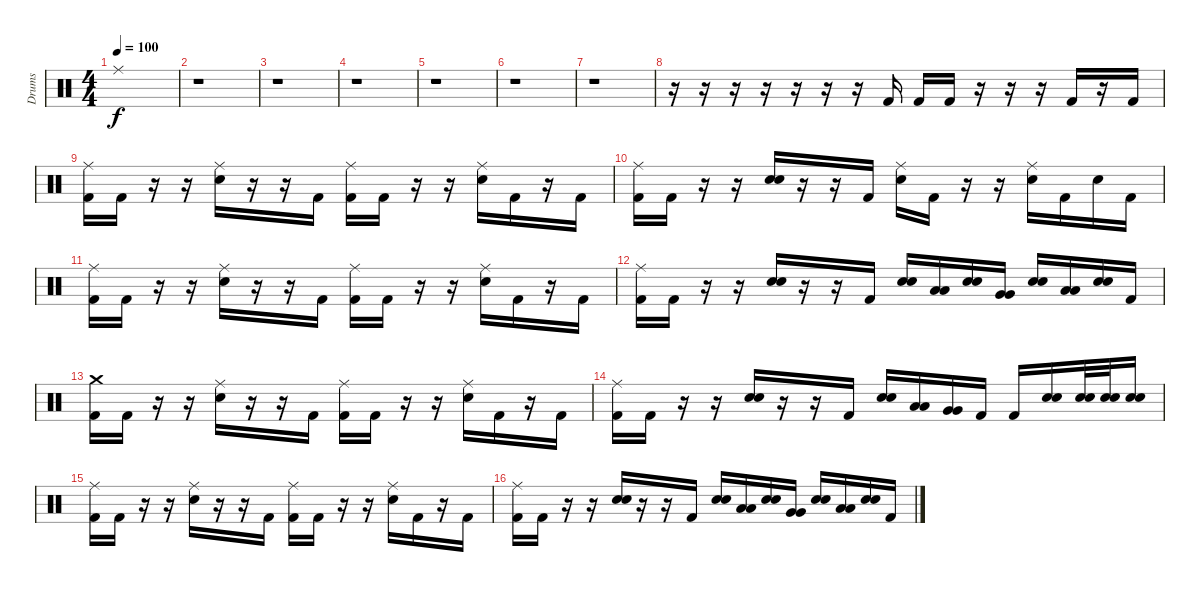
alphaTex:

\track ("Drums" "Drums") {instrument percussion}
\staff {score}
\articulation defaults
\ts (4 4)
\tempo 100
\clef neutral
\ks c "Ride (middle)".1{dy f}
|
r.1 |
r.1 |
r.1 |
r.1 |
r.1 |
r.1 |
r.16 r.16 r.16 r.16 r.16 r.16 r.16 "Kick (hit) 2".16 "Kick (hit) 2".16 "Kick (hit) 2".16 r.16 r.16 r.16 "Kick (hit) 2".16 r.16 "Kick (hit) 2".16 |
("Ride (middle)" "Kick (hit) 2").16 "Kick (hit) 2".16 r.16 r.16 ("Ride (middle)" "Electric Snare (hit)").16 r.16 r.16 "Kick (hit) 2".16 ("Ride (middle)" "Kick (hit) 2").16 "Kick (hit) 2".16 r.16 r.16 ("Ride (middle)" "Electric Snare (hit)").16 "Kick (hit) 2".16 r.16 "Kick (hit) 2".16 |
("Ride (middle)" "Kick (hit) 2").16 "Kick (hit) 2".16 r.16 r.16 ("Electric Snare (hit)" "Electric Snare (hit)").16 r.16 r.16 "Kick (hit) 2".16 ("Ride (middle)" "Electric Snare (hit)").16 "Kick (hit) 2".16 r.16 r.16 ("Ride (middle)" "Electric Snare (hit)").16 "Kick (hit) 2".16 "Electric Snare (hit)".16 "Kick (hit) 2".16 |
("Ride (middle)" "Kick (hit) 2").16 "Kick (hit) 2".16 r.16 r.16 ("Ride (middle)" "Electric Snare (hit)").16 r.16 r.16 "Kick (hit) 2".16 ("Ride (middle)" "Kick (hit) 2").16 "Kick (hit) 2".16 r.16 r.16 ("Ride (middle)" "Electric Snare (hit)").16 "Kick (hit) 2".16 r.16 "Kick (hit) 2".16 |
("Ride (middle)" "Kick (hit) 2").16 "Kick (hit) 2".16 r.16 r.16 ("Electric Snare (hit)" "Electric Snare (hit)").16 r.16 r.16 "Kick (hit) 2".16 ("Electric Snare (hit)" "Electric Snare (hit)").16 ("Low Floor Tom (hit)" "Low Floor Tom (hit)").16 ("Electric Snare (hit)" "Electric Snare (hit)").16 ("Very Low Tom (hit)" "Very Low Tom (hit)").16 ("Electric Snare (hit)" "Electric Snare (hit)").16 ("Low Tom (hit)" "Low Tom (hit)").16 ("Electric Snare (hit)" "Electric Snare (hit)").16 "Kick (hit) 2".16 |
("Crash medium (hit)" "Kick (hit) 2").16 "Kick (hit) 2".16 r.16 r.16 ("Ride (middle)" "Electric Snare (hit)").16 r.16 r.16 "Kick (hit) 2".16 ("Ride (middle)" "Kick (hit) 2").16 "Kick (hit) 2".16 r.16 r.16 ("Ride (middle)" "Electric Snare (hit)").16 "Kick (hit) 2".16 r.16 "Kick (hit) 2".16 |
("Ride (middle)" "Kick (hit) 2").16 "Kick (hit) 2".16 r.16 r.16 ("Electric Snare (hit)" "Electric Snare (hit)").16 r.16 r.16 "Kick (hit) 2".16 ("Electric Snare (hit)" "Electric Snare (hit)").16 ("Low Tom (hit)" "Low Tom (hit)").16 ("Very Low Tom (hit)" "Very Low Tom (hit)").16 "Kick (hit) 2".16 "Kick (hit) 2".16 ("Electric Snare (hit)" "Electric Snare (hit)").16 ("Electric Snare (hit)" "Electric Snare (hit)").32 ("Electric Snare (hit)" "Electric Snare (hit)").32 ("Electric Snare (hit)" "Electric Snare (hit)").16 |
("Ride (middle)" "Kick (hit) 2").16 "Kick (hit) 2".16 r.16 r.16 ("Ride (middle)" "Electric Snare (hit)").16 r.16 r.16 "Kick (hit) 2".16 ("Ride (middle)" "Kick (hit) 2").16 "Kick (hit) 2".16 r.16 r.16 ("Ride (middle)" "Electric Snare (hit)").16 "Kick (hit) 2".16 r.16 "Kick (hit) 2".16 |
("Ride (middle)" "Kick (hit) 2").16 "Kick (hit) 2".16 r.16 r.16 ("Electric Snare (hit)" "Electric Snare (hit)").16 r.16 r.16 "Kick (hit) 2".16 ("Electric Snare (hit)" "Electric Snare (hit)").16 ("Low Floor Tom (hit)" "Low Floor Tom (hit)").16 ("Electric Snare (hit)" "Electric Snare (hit)").16 ("Very Low Tom (hit)" "Very Low Tom (hit)").16 ("Electric Snare (hit)" "Electric Snare (hit)").16 ("Low Tom (hit)" "Low Tom (hit)").16 ("Electric Snare (hit)" "Electric Snare (hit)").16 "Kick (hit) 2".16
